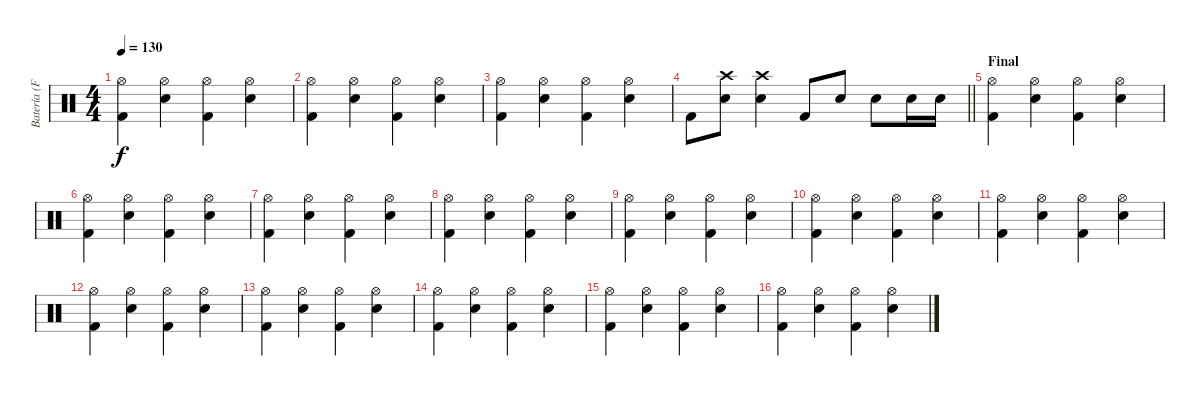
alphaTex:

\track ("Batería (F. Scarcella)" "Batería (F") {instrument percussion}
\staff {score}
\articulation defaults
\ts (4 4)
\tempo 130
\clef neutral
\ks c
("Kick (hit) 2" "Hi-Hat (open)").4{dy f} ("Snare (hit) 2" "Hi-Hat (open)").4 ("Kick (hit) 2" "Hi-Hat (open)").4 ("Snare (hit) 2" "Hi-Hat (open)").4 |
("Kick (hit) 2" "Hi-Hat (open)").4 ("Snare (hit) 2" "Hi-Hat (open)").4 ("Kick (hit) 2" "Hi-Hat (open)").4 ("Snare (hit) 2" "Hi-Hat (open)").4 |
("Kick (hit) 2" "Hi-Hat (open)").4 ("Snare (hit) 2" "Hi-Hat (open)").4 ("Kick (hit) 2" "Hi-Hat (open)").4 ("Snare (hit) 2" "Hi-Hat (open)").4 |
\barLineRight lightlight "Kick (hit) 2".8
("Snare (hit) 2" "Crash high (hit)").8 ("Snare (hit) 2" "Crash high (hit)").4 "Kick (hit) 2".8 "Snare (hit) 2".8 "Snare (hit) 2".8 "Snare (hit) 2".16 "Snare (hit) 2".16 |
\section ("" "Final")
("Kick (hit) 2" "Hi-Hat (open)").4 ("Snare (hit) 2" "Hi-Hat (open)").4 ("Kick (hit) 2" "Hi-Hat (open)").4 ("Snare (hit) 2" "Hi-Hat (open)").4 |
("Kick (hit) 2" "Hi-Hat (open)").4 ("Snare (hit) 2" "Hi-Hat (open)").4 ("Kick (hit) 2" "Hi-Hat (open)").4 ("Snare (hit) 2" "Hi-Hat (open)").4 |
("Kick (hit) 2" "Hi-Hat (open)").4 ("Snare (hit) 2" "Hi-Hat (open)").4 ("Kick (hit) 2" "Hi-Hat (open)").4 ("Snare (hit) 2" "Hi-Hat (open)").4 |
("Kick (hit) 2" "Hi-Hat (open)").4 ("Snare (hit) 2" "Hi-Hat (open)").4 ("Kick (hit) 2" "Hi-Hat (open)").4 ("Snare (hit) 2" "Hi-Hat (open)").4 |
("Kick (hit) 2" "Hi-Hat (open)").4 ("Snare (hit) 2" "Hi-Hat (open)").4 ("Kick (hit) 2" "Hi-Hat (open)").4 ("Snare (hit) 2" "Hi-Hat (open)").4 |
("Kick (hit) 2" "Hi-Hat (open)").4 ("Snare (hit) 2" "Hi-Hat (open)").4 ("Kick (hit) 2" "Hi-Hat (open)").4 ("Snare (hit) 2" "Hi-Hat (open)").4 |
("Kick (hit) 2" "Hi-Hat (open)").4 ("Snare (hit) 2" "Hi-Hat (open)").4 ("Kick (hit) 2" "Hi-Hat (open)").4 ("Snare (hit) 2" "Hi-Hat (open)").4 |
("Kick (hit) 2" "Hi-Hat (open)").4{volume 10} ("Snare (hit) 2" "Hi-Hat (open)").4 ("Kick (hit) 2" "Hi-Hat (open)").4 ("Snare (hit) 2" "Hi-Hat (open)").4 |
("Kick (hit) 2" "Hi-Hat (open)").4 ("Snare (hit) 2" "Hi-Hat (open)").4 ("Kick (hit) 2" "Hi-Hat (open)").4 ("Snare (hit) 2" "Hi-Hat (open)").4 |
("Kick (hit) 2" "Hi-Hat (open)").4 ("Snare (hit) 2" "Hi-Hat (open)").4 ("Kick (hit) 2" "Hi-Hat (open)").4 ("Snare (hit) 2" "Hi-Hat (open)").4 |
("Kick (hit) 2" "Hi-Hat (open)").4 ("Snare (hit) 2" "Hi-Hat (open)").4 ("Kick (hit) 2" "Hi-Hat (open)").4 ("Snare (hit) 2" "Hi-Hat (open)").4 |
("Kick (hit) 2" "Hi-Hat (open)").4 ("Snare (hit) 2" "Hi-Hat (open)").4 ("Kick (hit) 2" "Hi-Hat (open)").4{volume 0} ("Snare (hit) 2" "Hi-Hat (open)").4
